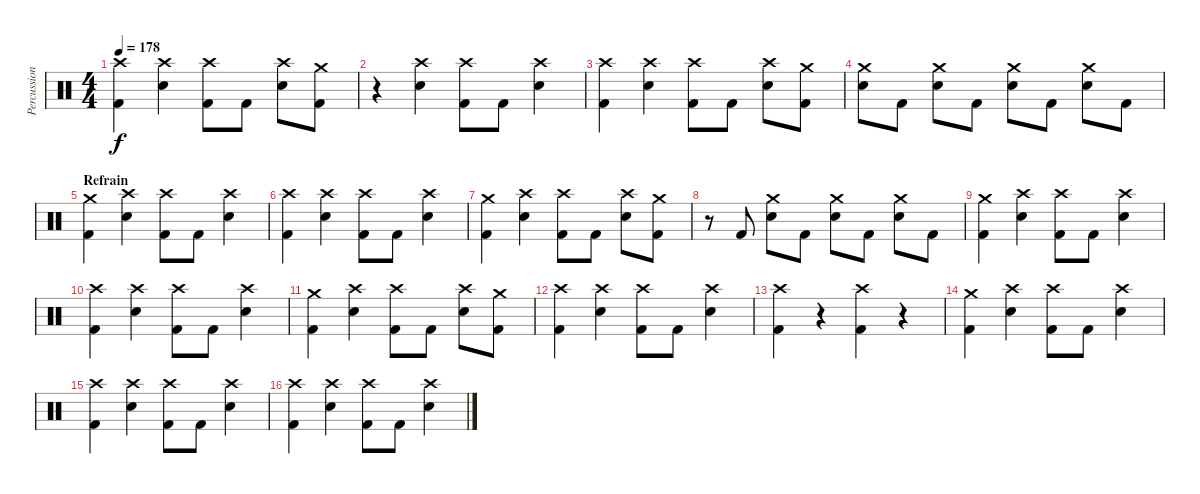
\track ("Percussion" "Percussion") {instrument percussion}
\staff {score}
\articulation defaults
\ts (4 4)
\tempo 178
\clef neutral
\ks c
("Crash high (hit)" "Kick (hit) 2").4{dy f} ("Crash high (hit)" "Snare (hit) 2").4 ("Crash high (hit)" "Kick (hit) 2").8 "Kick (hit) 2".8 ("Crash high (hit)" "Snare (hit) 2").8 ("Crash medium (hit)" "Kick (hit) 2").8 |
r.4 ("Crash high (hit)" "Snare (hit) 2").4 ("Crash high (hit)" "Kick (hit) 2").8 "Kick (hit) 2".8 ("Crash high (hit)" "Snare (hit) 2").4 |
("Crash high (hit)" "Kick (hit) 2").4 ("Crash high (hit)" "Snare (hit) 2").4 ("Crash high (hit)" "Kick (hit) 2").8 "Kick (hit) 2".8 ("Crash high (hit)" "Snare (hit) 2").8 ("Crash medium (hit)" "Kick (hit) 2").8 |
("Crash medium (hit)" "Snare (hit) 2").8 "Kick (hit) 2".8 ("Crash medium (hit)" "Snare (hit) 2").8 "Kick (hit) 2".8 ("Crash medium (hit)" "Snare (hit) 2").8 "Kick (hit) 2".8 ("Crash medium (hit)" "Snare (hit) 2").8 "Kick (hit) 2".8 |
\section ("" "Refrain")
("Crash medium (hit)" "Kick (hit) 2").4 ("Crash high (hit)" "Snare (hit) 2").4 ("Crash high (hit)" "Kick (hit) 2").8 "Kick (hit) 2".8 ("Crash high (hit)" "Snare (hit) 2").4 |
("Crash high (hit)" "Kick (hit) 2").4 ("Crash high (hit)" "Snare (hit) 2").4 ("Crash high (hit)" "Kick (hit) 2").8 "Kick (hit) 2".8 ("Crash high (hit)" "Snare (hit) 2").4 |
("Crash medium (hit)" "Kick (hit) 2").4 ("Crash high (hit)" "Snare (hit) 2").4 ("Crash high (hit)" "Kick (hit) 2").8 "Kick (hit) 2".8 ("Crash high (hit)" "Snare (hit) 2").8 ("Crash medium (hit)" "Kick (hit) 2").8 |
r.8 "Kick (hit) 2".8 ("Crash medium (hit)" "Snare (hit) 2").8 "Kick (hit) 2".8 ("Crash medium (hit)" "Snare (hit) 2").8 "Kick (hit) 2".8 ("Crash medium (hit)" "Snare (hit) 2").8 "Kick (hit) 2".8 |
("Crash medium (hit)" "Kick (hit) 2").4 ("Crash high (hit)" "Snare (hit) 2").4 ("Crash high (hit)" "Kick (hit) 2").8 "Kick (hit) 2".8 ("Crash high (hit)" "Snare (hit) 2").4 |
("Crash high (hit)" "Kick (hit) 2").4 ("Crash high (hit)" "Snare (hit) 2").4 ("Crash high (hit)" "Kick (hit) 2").8 "Kick (hit) 2".8 ("Crash high (hit)" "Snare (hit) 2").4 |
("Crash medium (hit)" "Kick (hit) 2").4 ("Crash high (hit)" "Snare (hit) 2").4 ("Crash high (hit)" "Kick (hit) 2").8 "Kick (hit) 2".8 ("Crash high (hit)" "Snare (hit) 2").8 ("Crash medium (hit)" "Kick (hit) 2").8 |
("Crash high (hit)" "Kick (hit) 2").4 ("Crash high (hit)" "Snare (hit) 2").4 ("Crash high (hit)" "Kick (hit) 2").8 "Kick (hit) 2".8 ("Crash high (hit)" "Snare (hit) 2").4 |
("Crash high (hit)" "Kick (hit) 2").4 r.4 ("Crash high (hit)" "Kick (hit) 2").4 r.4 |
("Crash medium (hit)" "Kick (hit) 2").4 ("Crash high (hit)" "Snare (hit) 2").4 ("Crash high (hit)" "Kick (hit) 2").8 "Kick (hit) 2".8 ("Crash high (hit)" "Snare (hit) 2").4 |
("Crash high (hit)" "Kick (hit) 2").4 ("Crash high (hit)" "Snare (hit) 2").4 ("Crash high (hit)" "Kick (hit) 2").8 "Kick (hit) 2".8 ("Crash high (hit)" "Snare (hit) 2").4 |
("Crash high (hit)" "Kick (hit) 2").4 ("Crash high (hit)" "Snare (hit) 2").4 ("Crash high (hit)" "Kick (hit) 2").8 "Kick (hit) 2".8 ("Crash high (hit)" "Snare (hit) 2").4
